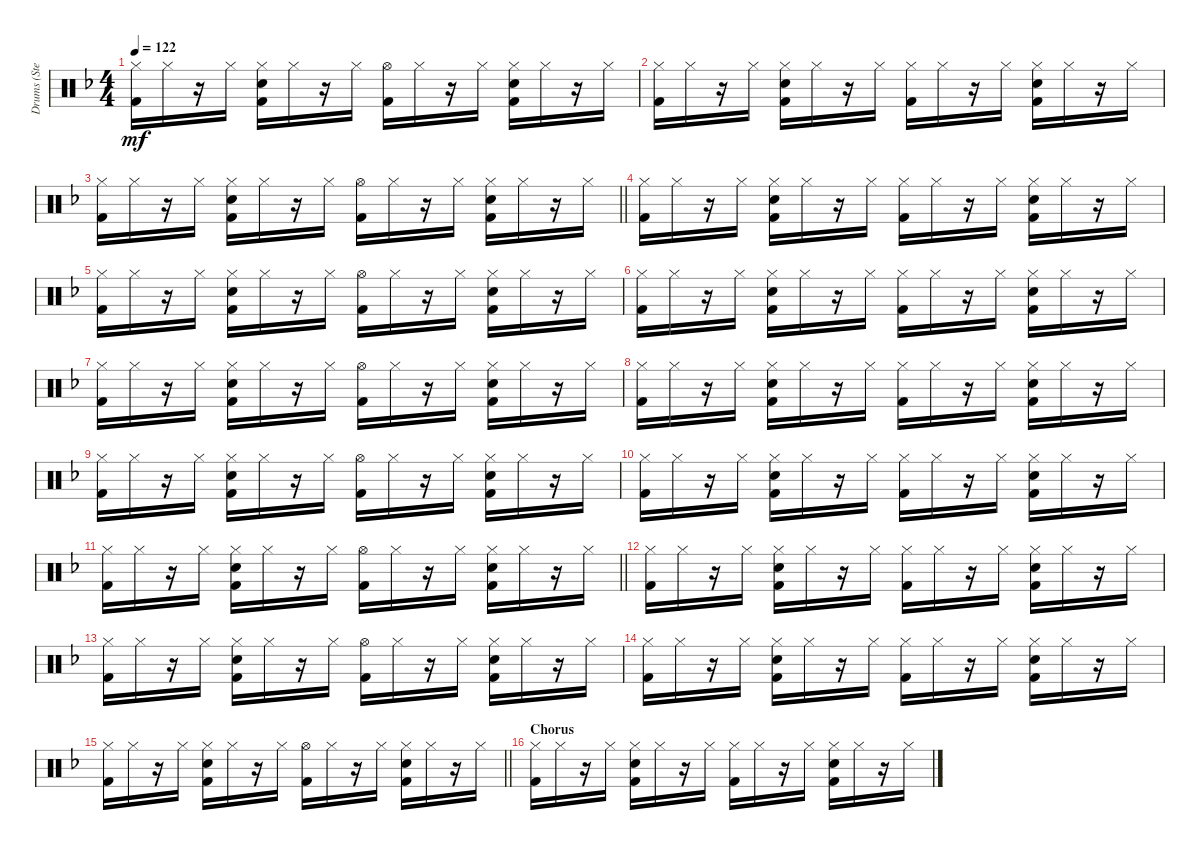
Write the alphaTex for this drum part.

\track ("Drums (Stephen Morris)" "Drums (Ste") {instrument percussion}
\staff {score}
\articulation defaults
\ts (4 4)
\tempo 122
\clef neutral
\ks f
("Kick (hit) 2" "Hi-Hat (closed)").16{dy mf} "Hi-Hat (closed)".16 r.16 "Hi-Hat (closed)".16 ("Hi-Hat (closed)" "Kick (hit) 2" "Snare (hit) 2").16 "Hi-Hat (closed)".16 r.16 "Hi-Hat (closed)".16 ("Kick (hit) 2" "Hi-Hat (open)").16 "Hi-Hat (closed)".16 r.16 "Hi-Hat (closed)".16 ("Kick (hit) 2" "Snare (hit) 2" "Hi-Hat (closed)").16 "Hi-Hat (closed)".16 r.16 "Hi-Hat (closed)".16 |
("Kick (hit) 2" "Hi-Hat (closed)").16 "Hi-Hat (closed)".16 r.16 "Hi-Hat (closed)".16 ("Hi-Hat (closed)" "Kick (hit) 2" "Snare (hit) 2").16 "Hi-Hat (closed)".16 r.16 "Hi-Hat (closed)".16 ("Hi-Hat (closed)" "Kick (hit) 2").16 "Hi-Hat (closed)".16 r.16 "Hi-Hat (closed)".16 ("Hi-Hat (closed)" "Snare (hit) 2" "Kick (hit) 2").16 "Hi-Hat (closed)".16 r.16 "Hi-Hat (closed)".16 |
\barLineRight lightlight
("Kick (hit) 2" "Hi-Hat (closed)").16 "Hi-Hat (closed)".16 r.16 "Hi-Hat (closed)".16 ("Kick (hit) 2" "Snare (hit) 2" "Hi-Hat (closed)").16 "Hi-Hat (closed)".16 r.16 "Hi-Hat (closed)".16 ("Hi-Hat (open)" "Kick (hit) 2").16 "Hi-Hat (closed)".16 r.16 "Hi-Hat (closed)".16 ("Hi-Hat (closed)" "Kick (hit) 2" "Snare (hit) 2").16 "Hi-Hat (closed)".16 r.16 "Hi-Hat (closed)".16 |
("Kick (hit) 2" "Hi-Hat (closed)").16 "Hi-Hat (closed)".16 r.16 "Hi-Hat (closed)".16 ("Hi-Hat (closed)" "Snare (hit) 2" "Kick (hit) 2").16 "Hi-Hat (closed)".16 r.16 "Hi-Hat (closed)".16 ("Hi-Hat (closed)" "Kick (hit) 2").16 "Hi-Hat (closed)".16 r.16 "Hi-Hat (closed)".16 ("Hi-Hat (closed)" "Kick (hit) 2" "Snare (hit) 2").16 "Hi-Hat (closed)".16 r.16 "Hi-Hat (closed)".16 |
("Kick (hit) 2" "Hi-Hat (closed)").16 "Hi-Hat (closed)".16 r.16 "Hi-Hat (closed)".16 ("Hi-Hat (closed)" "Snare (hit) 2" "Kick (hit) 2").16 "Hi-Hat (closed)".16 r.16 "Hi-Hat (closed)".16 ("Kick (hit) 2" "Hi-Hat (open)").16 "Hi-Hat (closed)".16 r.16 "Hi-Hat (closed)".16 ("Hi-Hat (closed)" "Snare (hit) 2" "Kick (hit) 2").16 "Hi-Hat (closed)".16 r.16 "Hi-Hat (closed)".16 |
("Kick (hit) 2" "Hi-Hat (closed)").16 "Hi-Hat (closed)".16 r.16 "Hi-Hat (closed)".16 ("Kick (hit) 2" "Snare (hit) 2" "Hi-Hat (closed)").16 "Hi-Hat (closed)".16 r.16 "Hi-Hat (closed)".16 ("Kick (hit) 2" "Hi-Hat (closed)").16 "Hi-Hat (closed)".16 r.16 "Hi-Hat (closed)".16 ("Hi-Hat (closed)" "Snare (hit) 2" "Kick (hit) 2").16 "Hi-Hat (closed)".16 r.16 "Hi-Hat (closed)".16 |
("Kick (hit) 2" "Hi-Hat (closed)").16 "Hi-Hat (closed)".16 r.16 "Hi-Hat (closed)".16 ("Kick (hit) 2" "Snare (hit) 2" "Hi-Hat (closed)").16 "Hi-Hat (closed)".16 r.16 "Hi-Hat (closed)".16 ("Kick (hit) 2" "Hi-Hat (open)").16 "Hi-Hat (closed)".16 r.16 "Hi-Hat (closed)".16 ("Hi-Hat (closed)" "Kick (hit) 2" "Snare (hit) 2").16 "Hi-Hat (closed)".16 r.16 "Hi-Hat (closed)".16 |
("Hi-Hat (closed)" "Kick (hit) 2").16 "Hi-Hat (closed)".16 r.16 "Hi-Hat (closed)".16 ("Hi-Hat (closed)" "Snare (hit) 2" "Kick (hit) 2").16 "Hi-Hat (closed)".16 r.16 "Hi-Hat (closed)".16 ("Kick (hit) 2" "Hi-Hat (closed)").16 "Hi-Hat (closed)".16 r.16 "Hi-Hat (closed)".16 ("Kick (hit) 2" "Snare (hit) 2" "Hi-Hat (closed)").16 "Hi-Hat (closed)".16 r.16 "Hi-Hat (closed)".16 |
("Hi-Hat (closed)" "Kick (hit) 2").16 "Hi-Hat (closed)".16 r.16 "Hi-Hat (closed)".16 ("Hi-Hat (closed)" "Snare (hit) 2" "Kick (hit) 2").16 "Hi-Hat (closed)".16 r.16 "Hi-Hat (closed)".16 ("Kick (hit) 2" "Hi-Hat (open)").16 "Hi-Hat (closed)".16 r.16 "Hi-Hat (closed)".16 ("Hi-Hat (closed)" "Snare (hit) 2" "Kick (hit) 2").16 "Hi-Hat (closed)".16 r.16 "Hi-Hat (closed)".16 |
("Hi-Hat (closed)" "Kick (hit) 2").16 "Hi-Hat (closed)".16 r.16 "Hi-Hat (closed)".16 ("Hi-Hat (closed)" "Snare (hit) 2" "Kick (hit) 2").16 "Hi-Hat (closed)".16 r.16 "Hi-Hat (closed)".16 ("Kick (hit) 2" "Hi-Hat (closed)").16 "Hi-Hat (closed)".16 r.16 "Hi-Hat (closed)".16 ("Hi-Hat (closed)" "Snare (hit) 2" "Kick (hit) 2").16 "Hi-Hat (closed)".16 r.16 "Hi-Hat (closed)".16 |
\barLineRight lightlight
("Kick (hit) 2" "Hi-Hat (closed)").16 "Hi-Hat (closed)".16 r.16 "Hi-Hat (closed)".16 ("Hi-Hat (closed)" "Snare (hit) 2" "Kick (hit) 2").16 "Hi-Hat (closed)".16 r.16 "Hi-Hat (closed)".16 ("Kick (hit) 2" "Hi-Hat (open)").16 "Hi-Hat (closed)".16 r.16 "Hi-Hat (closed)".16 ("Kick (hit) 2" "Snare (hit) 2" "Hi-Hat (closed)").16 "Hi-Hat (closed)".16 r.16 "Hi-Hat (closed)".16 |
("Kick (hit) 2" "Hi-Hat (closed)").16 "Hi-Hat (closed)".16 r.16 "Hi-Hat (closed)".16 ("Hi-Hat (closed)" "Snare (hit) 2" "Kick (hit) 2").16 "Hi-Hat (closed)".16 r.16 "Hi-Hat (closed)".16 ("Kick (hit) 2" "Hi-Hat (closed)").16 "Hi-Hat (closed)".16 r.16 "Hi-Hat (closed)".16 ("Kick (hit) 2" "Snare (hit) 2" "Hi-Hat (closed)").16 "Hi-Hat (closed)".16 r.16 "Hi-Hat (closed)".16 |
("Kick (hit) 2" "Hi-Hat (closed)").16 "Hi-Hat (closed)".16 r.16 "Hi-Hat (closed)".16 ("Hi-Hat (closed)" "Snare (hit) 2" "Kick (hit) 2").16 "Hi-Hat (closed)".16 r.16 "Hi-Hat (closed)".16 ("Hi-Hat (open)" "Kick (hit) 2").16 "Hi-Hat (closed)".16 r.16 "Hi-Hat (closed)".16 ("Hi-Hat (closed)" "Snare (hit) 2" "Kick (hit) 2").16 "Hi-Hat (closed)".16 r.16 "Hi-Hat (closed)".16 |
("Kick (hit) 2" "Hi-Hat (closed)").16 "Hi-Hat (closed)".16 r.16 "Hi-Hat (closed)".16 ("Kick (hit) 2" "Snare (hit) 2" "Hi-Hat (closed)").16 "Hi-Hat (closed)".16 r.16 "Hi-Hat (closed)".16 ("Hi-Hat (closed)" "Kick (hit) 2").16 "Hi-Hat (closed)".16 r.16 "Hi-Hat (closed)".16 ("Hi-Hat (closed)" "Snare (hit) 2" "Kick (hit) 2").16 "Hi-Hat (closed)".16 r.16 "Hi-Hat (closed)".16 |
\barLineRight lightlight
("Kick (hit) 2" "Hi-Hat (closed)").16 "Hi-Hat (closed)".16 r.16 "Hi-Hat (closed)".16 ("Hi-Hat (closed)" "Snare (hit) 2" "Kick (hit) 2").16 "Hi-Hat (closed)".16 r.16 "Hi-Hat (closed)".16 ("Hi-Hat (open)" "Kick (hit) 2").16 "Hi-Hat (closed)".16 r.16 "Hi-Hat (closed)".16 ("Hi-Hat (closed)" "Snare (hit) 2" "Kick (hit) 2").16 "Hi-Hat (closed)".16 r.16 "Hi-Hat (closed)".16 |
\section ("" "Chorus")
("Kick (hit) 2" "Hi-Hat (closed)").16 "Hi-Hat (closed)".16 r.16 "Hi-Hat (closed)".16 ("Hi-Hat (closed)" "Snare (hit) 2" "Kick (hit) 2").16 "Hi-Hat (closed)".16 r.16 "Hi-Hat (closed)".16 ("Kick (hit) 2" "Hi-Hat (closed)").16 "Hi-Hat (closed)".16 r.16 "Hi-Hat (closed)".16 ("Hi-Hat (closed)" "Snare (hit) 2" "Kick (hit) 2").16 "Hi-Hat (closed)".16 r.16 "Hi-Hat (closed)".16
